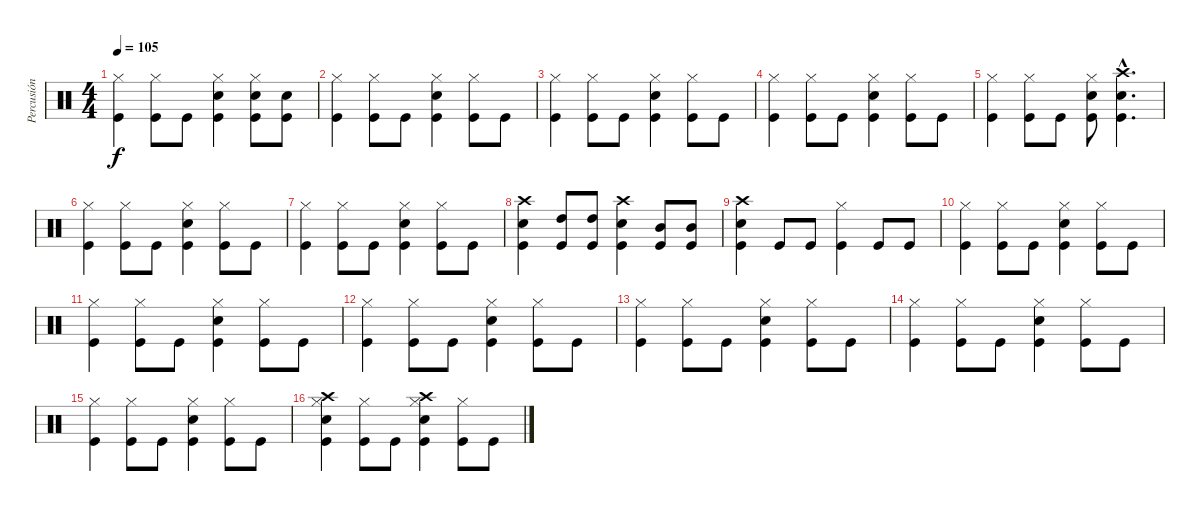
\track ("Percusión" "Percusión") {instrument percussion}
\staff {score}
\articulation defaults
\ts (4 4)
\tempo 105
\clef neutral
\ks c
("Hi-Hat (closed)" "Kick (hit)").4{dy f} ("Hi-Hat (closed)" "Kick (hit)").8 "Kick (hit)".8 ("Hi-Hat (closed)" "Snare (hit) 2" "Kick (hit)").4 ("Hi-Hat (closed)" "Snare (hit) 2" "Kick (hit)").8 ("Snare (hit) 2" "Kick (hit)").8 |
("Hi-Hat (closed)" "Kick (hit)").4 ("Hi-Hat (closed)" "Kick (hit)").8 "Kick (hit)".8 ("Hi-Hat (closed)" "Snare (hit) 2" "Kick (hit)").4 ("Hi-Hat (closed)" "Kick (hit)").8 "Kick (hit)".8 |
("Hi-Hat (closed)" "Kick (hit)").4 ("Hi-Hat (closed)" "Kick (hit)").8 "Kick (hit)".8 ("Hi-Hat (closed)" "Snare (hit) 2" "Kick (hit)").4 ("Hi-Hat (closed)" "Kick (hit)").8 "Kick (hit)".8 |
("Hi-Hat (closed)" "Kick (hit)").4 ("Hi-Hat (closed)" "Kick (hit)").8 "Kick (hit)".8 ("Hi-Hat (closed)" "Snare (hit) 2" "Kick (hit)").4 ("Hi-Hat (closed)" "Kick (hit)").8 "Kick (hit)".8 |
("Hi-Hat (closed)" "Kick (hit)").4 ("Hi-Hat (closed)" "Kick (hit)").8 "Kick (hit)".8 ("Hi-Hat (closed)" "Snare (hit) 2" "Kick (hit)").8 ("Crash high (hit)"{hac} "Snare (hit) 2"{hac} "Kick (hit)"{hac}).4{d} |
("Hi-Hat (closed)" "Kick (hit)").4 ("Hi-Hat (closed)" "Kick (hit)").8 "Kick (hit)".8 ("Hi-Hat (closed)" "Snare (hit) 2" "Kick (hit)").4 ("Hi-Hat (closed)" "Kick (hit)").8 "Kick (hit)".8 |
("Hi-Hat (closed)" "Kick (hit)").4 ("Hi-Hat (closed)" "Kick (hit)").8 "Kick (hit)".8 ("Hi-Hat (closed)" "Snare (hit) 2" "Kick (hit)").4 ("Hi-Hat (closed)" "Kick (hit)").8 "Kick (hit)".8 |
("Crash high (hit)" "Snare (hit) 2" "Kick (hit)").4 ("High Tom (hit)" "Kick (hit)").8 ("High Tom (hit)" "Kick (hit)").8 ("Crash high (hit)" "Snare (hit) 2" "Kick (hit)").4 ("Mid Tom (hit)" "Kick (hit)").8 ("Mid Tom (hit)" "Kick (hit)").8 |
("Crash high (hit)" "Snare (hit) 2" "Kick (hit)").4 "Kick (hit)".8 "Kick (hit)".8 ("Hi-Hat (closed)" "Kick (hit)").4 "Kick (hit)".8 "Kick (hit)".8 |
("Hi-Hat (closed)" "Kick (hit)").4 ("Hi-Hat (closed)" "Kick (hit)").8 "Kick (hit)".8 ("Hi-Hat (closed)" "Snare (hit) 2" "Kick (hit)").4 ("Hi-Hat (closed)" "Kick (hit)").8 "Kick (hit)".8 |
("Hi-Hat (closed)" "Kick (hit)").4 ("Hi-Hat (closed)" "Kick (hit)").8 "Kick (hit)".8 ("Hi-Hat (closed)" "Snare (hit) 2" "Kick (hit)").4 ("Hi-Hat (closed)" "Kick (hit)").8 "Kick (hit)".8 |
("Hi-Hat (closed)" "Kick (hit)").4 ("Hi-Hat (closed)" "Kick (hit)").8 "Kick (hit)".8 ("Hi-Hat (closed)" "Snare (hit) 2" "Kick (hit)").4 ("Hi-Hat (closed)" "Kick (hit)").8 "Kick (hit)".8 |
("Hi-Hat (closed)" "Kick (hit)").4 ("Hi-Hat (closed)" "Kick (hit)").8 "Kick (hit)".8 ("Hi-Hat (closed)" "Snare (hit) 2" "Kick (hit)").4 ("Hi-Hat (closed)" "Kick (hit)").8 "Kick (hit)".8 |
("Hi-Hat (closed)" "Kick (hit)").4 ("Hi-Hat (closed)" "Kick (hit)").8 "Kick (hit)".8 ("Hi-Hat (closed)" "Snare (hit) 2" "Kick (hit)").4 ("Hi-Hat (closed)" "Kick (hit)").8 "Kick (hit)".8 |
("Hi-Hat (closed)" "Kick (hit)").4 ("Hi-Hat (closed)" "Kick (hit)").8 "Kick (hit)".8 ("Hi-Hat (closed)" "Snare (hit) 2" "Kick (hit)").4 ("Hi-Hat (closed)" "Kick (hit)").8 "Kick (hit)".8 |
("Hi-Hat (closed)" "Crash high (hit)" "Snare (hit) 2" "Kick (hit)").4 ("Hi-Hat (closed)" "Kick (hit)").8 "Kick (hit)".8 ("Hi-Hat (closed)" "Crash high (hit)" "Snare (hit) 2" "Kick (hit)").4 ("Hi-Hat (closed)" "Kick (hit)").8 "Kick (hit)".8
